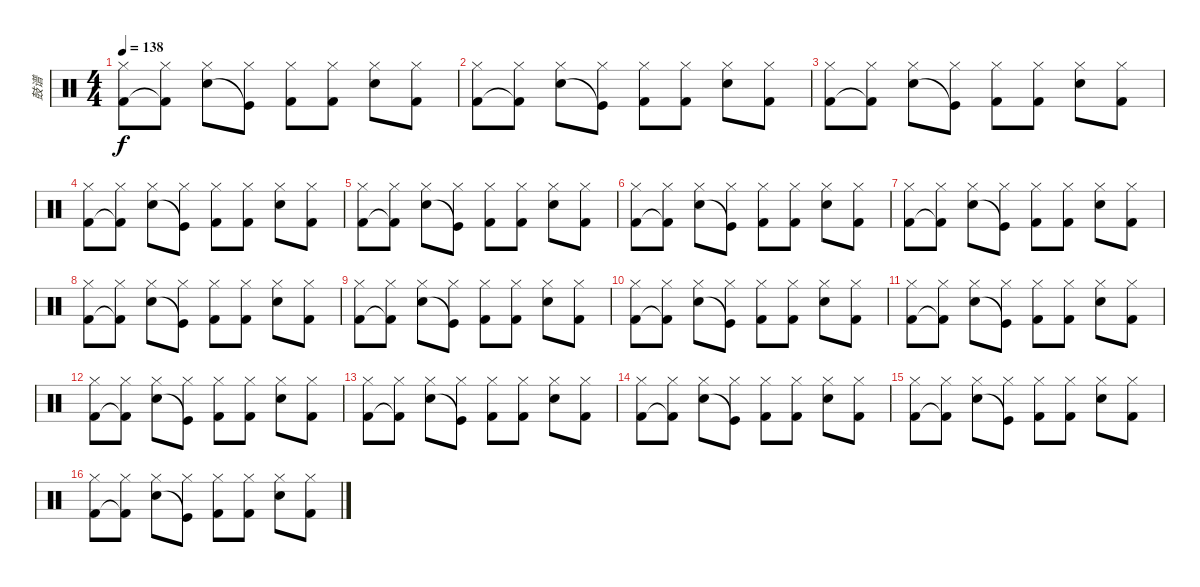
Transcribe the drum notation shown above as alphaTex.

\track ("鼓谱" "鼓谱") {instrument percussion}
\staff {score}
\articulation defaults
\ts (4 4)
\tempo 138
\clef neutral
\ks c
("Kick (hit) 2" "Hi-Hat (closed)").8{dy f} ("Kick (hit) 2"{t} "Hi-Hat (closed)").8 ("Snare (hit) 2" "Hi-Hat (closed)").8 ("Kick (hit)"{t} "Hi-Hat (closed)").8 ("Kick (hit) 2" "Hi-Hat (closed)").8 ("Kick (hit) 2" "Hi-Hat (closed)").8 ("Snare (hit) 2" "Hi-Hat (closed)").8 ("Kick (hit) 2" "Hi-Hat (closed)").8 |
("Kick (hit) 2" "Hi-Hat (closed)").8 ("Kick (hit) 2"{t} "Hi-Hat (closed)").8 ("Snare (hit) 2" "Hi-Hat (closed)").8 ("Kick (hit)"{t} "Hi-Hat (closed)").8 ("Kick (hit) 2" "Hi-Hat (closed)").8 ("Kick (hit) 2" "Hi-Hat (closed)").8 ("Snare (hit) 2" "Hi-Hat (closed)").8 ("Kick (hit) 2" "Hi-Hat (closed)").8 |
("Kick (hit) 2" "Hi-Hat (closed)").8 ("Kick (hit) 2"{t} "Hi-Hat (closed)").8 ("Snare (hit) 2" "Hi-Hat (closed)").8 ("Kick (hit)"{t} "Hi-Hat (closed)").8 ("Kick (hit) 2" "Hi-Hat (closed)").8 ("Kick (hit) 2" "Hi-Hat (closed)").8 ("Snare (hit) 2" "Hi-Hat (closed)").8 ("Kick (hit) 2" "Hi-Hat (closed)").8 |
("Kick (hit) 2" "Hi-Hat (closed)").8 ("Kick (hit) 2"{t} "Hi-Hat (closed)").8 ("Snare (hit) 2" "Hi-Hat (closed)").8 ("Kick (hit)"{t} "Hi-Hat (closed)").8 ("Kick (hit) 2" "Hi-Hat (closed)").8 ("Kick (hit) 2" "Hi-Hat (closed)").8 ("Snare (hit) 2" "Hi-Hat (closed)").8 ("Kick (hit) 2" "Hi-Hat (closed)").8 |
("Kick (hit) 2" "Hi-Hat (closed)").8 ("Kick (hit) 2"{t} "Hi-Hat (closed)").8 ("Snare (hit) 2" "Hi-Hat (closed)").8 ("Kick (hit)"{t} "Hi-Hat (closed)").8 ("Kick (hit) 2" "Hi-Hat (closed)").8 ("Kick (hit) 2" "Hi-Hat (closed)").8 ("Snare (hit) 2" "Hi-Hat (closed)").8 ("Kick (hit) 2" "Hi-Hat (closed)").8 |
("Kick (hit) 2" "Hi-Hat (closed)").8 ("Kick (hit) 2"{t} "Hi-Hat (closed)").8 ("Snare (hit) 2" "Hi-Hat (closed)").8 ("Kick (hit)"{t} "Hi-Hat (closed)").8 ("Kick (hit) 2" "Hi-Hat (closed)").8 ("Kick (hit) 2" "Hi-Hat (closed)").8 ("Snare (hit) 2" "Hi-Hat (closed)").8 ("Kick (hit) 2" "Hi-Hat (closed)").8 |
("Kick (hit) 2" "Hi-Hat (closed)").8 ("Kick (hit) 2"{t} "Hi-Hat (closed)").8 ("Snare (hit) 2" "Hi-Hat (closed)").8 ("Kick (hit)"{t} "Hi-Hat (closed)").8 ("Kick (hit) 2" "Hi-Hat (closed)").8 ("Kick (hit) 2" "Hi-Hat (closed)").8 ("Snare (hit) 2" "Hi-Hat (closed)").8 ("Kick (hit) 2" "Hi-Hat (closed)").8 |
("Kick (hit) 2" "Hi-Hat (closed)").8 ("Kick (hit) 2"{t} "Hi-Hat (closed)").8 ("Snare (hit) 2" "Hi-Hat (closed)").8 ("Kick (hit)"{t} "Hi-Hat (closed)").8 ("Kick (hit) 2" "Hi-Hat (closed)").8 ("Kick (hit) 2" "Hi-Hat (closed)").8 ("Snare (hit) 2" "Hi-Hat (closed)").8 ("Kick (hit) 2" "Hi-Hat (closed)").8 |
("Kick (hit) 2" "Hi-Hat (closed)").8 ("Kick (hit) 2"{t} "Hi-Hat (closed)").8 ("Snare (hit) 2" "Hi-Hat (closed)").8 ("Kick (hit)"{t} "Hi-Hat (closed)").8 ("Kick (hit) 2" "Hi-Hat (closed)").8 ("Kick (hit) 2" "Hi-Hat (closed)").8 ("Snare (hit) 2" "Hi-Hat (closed)").8 ("Kick (hit) 2" "Hi-Hat (closed)").8 |
("Kick (hit) 2" "Hi-Hat (closed)").8 ("Kick (hit) 2"{t} "Hi-Hat (closed)").8 ("Snare (hit) 2" "Hi-Hat (closed)").8 ("Kick (hit)"{t} "Hi-Hat (closed)").8 ("Kick (hit) 2" "Hi-Hat (closed)").8 ("Kick (hit) 2" "Hi-Hat (closed)").8 ("Snare (hit) 2" "Hi-Hat (closed)").8 ("Kick (hit) 2" "Hi-Hat (closed)").8 |
("Kick (hit) 2" "Hi-Hat (closed)").8 ("Kick (hit) 2"{t} "Hi-Hat (closed)").8 ("Snare (hit) 2" "Hi-Hat (closed)").8 ("Kick (hit)"{t} "Hi-Hat (closed)").8 ("Kick (hit) 2" "Hi-Hat (closed)").8 ("Kick (hit) 2" "Hi-Hat (closed)").8 ("Snare (hit) 2" "Hi-Hat (closed)").8 ("Kick (hit) 2" "Hi-Hat (closed)").8 |
("Kick (hit) 2" "Hi-Hat (closed)").8 ("Kick (hit) 2"{t} "Hi-Hat (closed)").8 ("Snare (hit) 2" "Hi-Hat (closed)").8 ("Kick (hit)"{t} "Hi-Hat (closed)").8 ("Kick (hit) 2" "Hi-Hat (closed)").8 ("Kick (hit) 2" "Hi-Hat (closed)").8 ("Snare (hit) 2" "Hi-Hat (closed)").8 ("Kick (hit) 2" "Hi-Hat (closed)").8 |
("Kick (hit) 2" "Hi-Hat (closed)").8 ("Kick (hit) 2"{t} "Hi-Hat (closed)").8 ("Snare (hit) 2" "Hi-Hat (closed)").8 ("Kick (hit)"{t} "Hi-Hat (closed)").8 ("Kick (hit) 2" "Hi-Hat (closed)").8 ("Kick (hit) 2" "Hi-Hat (closed)").8 ("Snare (hit) 2" "Hi-Hat (closed)").8 ("Kick (hit) 2" "Hi-Hat (closed)").8 |
("Kick (hit) 2" "Hi-Hat (closed)").8 ("Kick (hit) 2"{t} "Hi-Hat (closed)").8 ("Snare (hit) 2" "Hi-Hat (closed)").8 ("Kick (hit)"{t} "Hi-Hat (closed)").8 ("Kick (hit) 2" "Hi-Hat (closed)").8 ("Kick (hit) 2" "Hi-Hat (closed)").8 ("Snare (hit) 2" "Hi-Hat (closed)").8 ("Kick (hit) 2" "Hi-Hat (closed)").8 |
("Kick (hit) 2" "Hi-Hat (closed)").8 ("Kick (hit) 2"{t} "Hi-Hat (closed)").8 ("Snare (hit) 2" "Hi-Hat (closed)").8 ("Kick (hit)"{t} "Hi-Hat (closed)").8 ("Kick (hit) 2" "Hi-Hat (closed)").8 ("Kick (hit) 2" "Hi-Hat (closed)").8 ("Snare (hit) 2" "Hi-Hat (closed)").8 ("Kick (hit) 2" "Hi-Hat (closed)").8 |
("Kick (hit) 2" "Hi-Hat (closed)").8 ("Kick (hit) 2"{t} "Hi-Hat (closed)").8 ("Snare (hit) 2" "Hi-Hat (closed)").8 ("Kick (hit)"{t} "Hi-Hat (closed)").8 ("Kick (hit) 2" "Hi-Hat (closed)").8 ("Kick (hit) 2" "Hi-Hat (closed)").8 ("Snare (hit) 2" "Hi-Hat (closed)").8 ("Kick (hit) 2" "Hi-Hat (closed)").8
